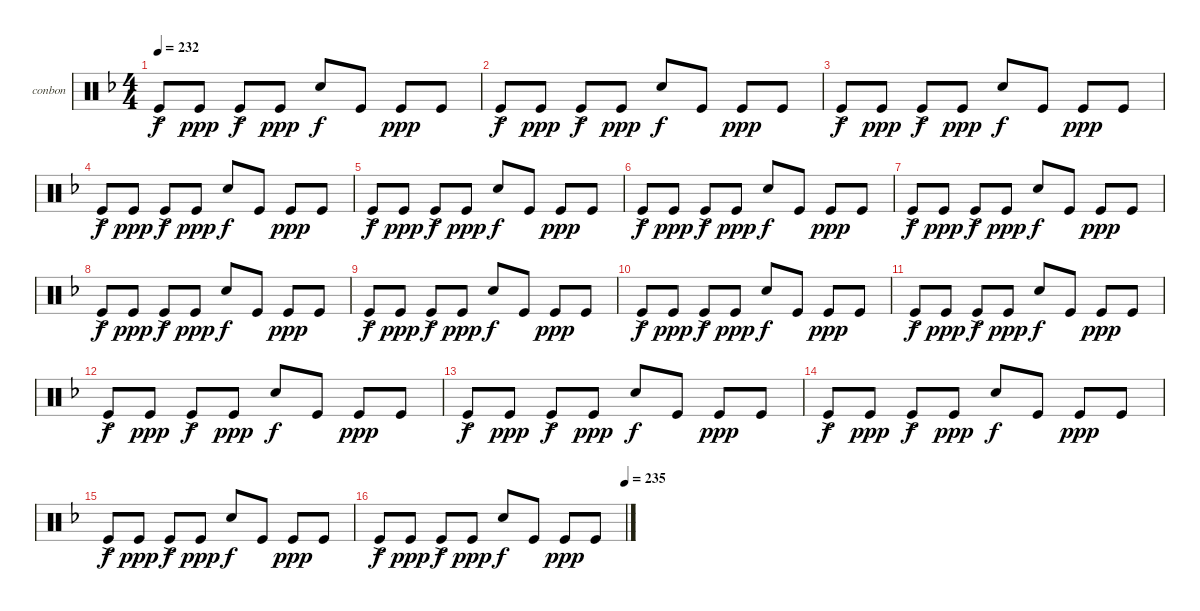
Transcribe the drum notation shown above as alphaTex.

\defaultSystemsLayout 4
\bracketExtendMode groupsimilarinstruments
\firstSystemTrackNameOrientation horizontal
\otherSystemsTrackNameOrientation horizontal
\track ("Bongos N Congas" "conbon") {instrument percussion}
\staff {score}
\articulation defaults
\ts (4 4)
\tempo 232
\clef neutral
\ks dminor "Kick (hit)"{ac}.8{dy f} "Kick (hit)".8{dy ppp} "Kick (hit)"{ac}.8{dy f} "Kick (hit)".8{dy ppp} "Snare (hit) 2".8{dy f} "Kick (hit)".8 "Kick (hit)".8{dy ppp} "Kick (hit)".8
|
"Kick (hit)"{ac}.8{dy f} "Kick (hit)".8{dy ppp} "Kick (hit)"{ac}.8{dy f} "Kick (hit)".8{dy ppp} "Snare (hit) 2".8{dy f} "Kick (hit)".8 "Kick (hit)".8{dy ppp} "Kick (hit)".8 |
"Kick (hit)"{ac}.8{dy f} "Kick (hit)".8{dy ppp} "Kick (hit)"{ac}.8{dy f} "Kick (hit)".8{dy ppp} "Snare (hit) 2".8{dy f} "Kick (hit)".8 "Kick (hit)".8{dy ppp} "Kick (hit)".8 |
"Kick (hit)"{ac}.8{dy f} "Kick (hit)".8{dy ppp} "Kick (hit)"{ac}.8{dy f} "Kick (hit)".8{dy ppp} "Snare (hit) 2".8{dy f} "Kick (hit)".8 "Kick (hit)".8{dy ppp} "Kick (hit)".8 |
"Kick (hit)"{ac}.8{dy f} "Kick (hit)".8{dy ppp} "Kick (hit)"{ac}.8{dy f} "Kick (hit)".8{dy ppp} "Snare (hit) 2".8{dy f} "Kick (hit)".8 "Kick (hit)".8{dy ppp} "Kick (hit)".8 |
"Kick (hit)"{ac}.8{dy f} "Kick (hit)".8{dy ppp} "Kick (hit)"{ac}.8{dy f} "Kick (hit)".8{dy ppp} "Snare (hit) 2".8{dy f} "Kick (hit)".8 "Kick (hit)".8{dy ppp} "Kick (hit)".8 |
"Kick (hit)"{ac}.8{dy f} "Kick (hit)".8{dy ppp} "Kick (hit)"{ac}.8{dy f} "Kick (hit)".8{dy ppp} "Snare (hit) 2".8{dy f} "Kick (hit)".8 "Kick (hit)".8{dy ppp} "Kick (hit)".8 |
"Kick (hit)"{ac}.8{dy f} "Kick (hit)".8{dy ppp} "Kick (hit)"{ac}.8{dy f} "Kick (hit)".8{dy ppp} "Snare (hit) 2".8{dy f} "Kick (hit)".8 "Kick (hit)".8{dy ppp} "Kick (hit)".8 |
"Kick (hit)"{ac}.8{dy f} "Kick (hit)".8{dy ppp} "Kick (hit)"{ac}.8{dy f} "Kick (hit)".8{dy ppp} "Snare (hit) 2".8{dy f} "Kick (hit)".8 "Kick (hit)".8{dy ppp} "Kick (hit)".8 |
"Kick (hit)"{ac}.8{dy f} "Kick (hit)".8{dy ppp} "Kick (hit)"{ac}.8{dy f} "Kick (hit)".8{dy ppp} "Snare (hit) 2".8{dy f} "Kick (hit)".8 "Kick (hit)".8{dy ppp} "Kick (hit)".8 |
"Kick (hit)"{ac}.8{dy f} "Kick (hit)".8{dy ppp} "Kick (hit)"{ac}.8{dy f} "Kick (hit)".8{dy ppp} "Snare (hit) 2".8{dy f} "Kick (hit)".8 "Kick (hit)".8{dy ppp} "Kick (hit)".8 |
"Kick (hit)"{ac}.8{dy f} "Kick (hit)".8{dy ppp} "Kick (hit)"{ac}.8{dy f} "Kick (hit)".8{dy ppp} "Snare (hit) 2".8{dy f} "Kick (hit)".8 "Kick (hit)".8{dy ppp} "Kick (hit)".8 |
"Kick (hit)"{ac}.8{dy f} "Kick (hit)".8{dy ppp} "Kick (hit)"{ac}.8{dy f} "Kick (hit)".8{dy ppp} "Snare (hit) 2".8{dy f} "Kick (hit)".8 "Kick (hit)".8{dy ppp} "Kick (hit)".8 |
"Kick (hit)"{ac}.8{dy f} "Kick (hit)".8{dy ppp} "Kick (hit)"{ac}.8{dy f} "Kick (hit)".8{dy ppp} "Snare (hit) 2".8{dy f} "Kick (hit)".8 "Kick (hit)".8{dy ppp} "Kick (hit)".8 |
"Kick (hit)"{ac}.8{dy f} "Kick (hit)".8{dy ppp} "Kick (hit)"{ac}.8{dy f} "Kick (hit)".8{dy ppp} "Snare (hit) 2".8{dy f} "Kick (hit)".8 "Kick (hit)".8{dy ppp} "Kick (hit)".8 |
\tempo (235 1)
"Kick (hit)"{ac}.8{dy f} "Kick (hit)".8{dy ppp} "Kick (hit)"{ac}.8{dy f} "Kick (hit)".8{dy ppp} "Snare (hit) 2".8{dy f} "Kick (hit)".8 "Kick (hit)".8{dy ppp} "Kick (hit)".8
